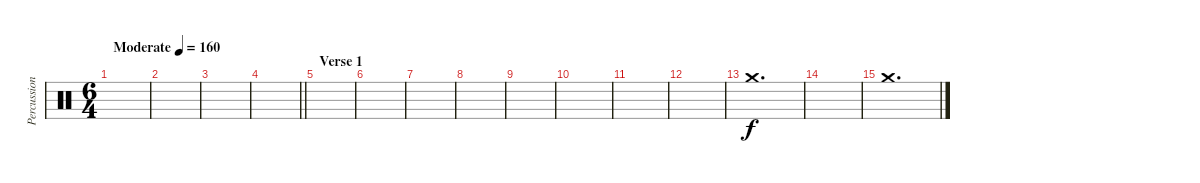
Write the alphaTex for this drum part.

\track ("Percussion" "Percussion") {instrument percussion}
\staff {score}
\articulation defaults
\ts (6 4)
\tempo (160 "Moderate")
\clef neutral
\ks c
|
|
|
\barLineRight lightlight
|
\section ("" "Verse 1")
|
|
|
|
|
|
|
|
"Crash medium (hit)".1{d} |
|
"Crash medium (hit)".1{d}
